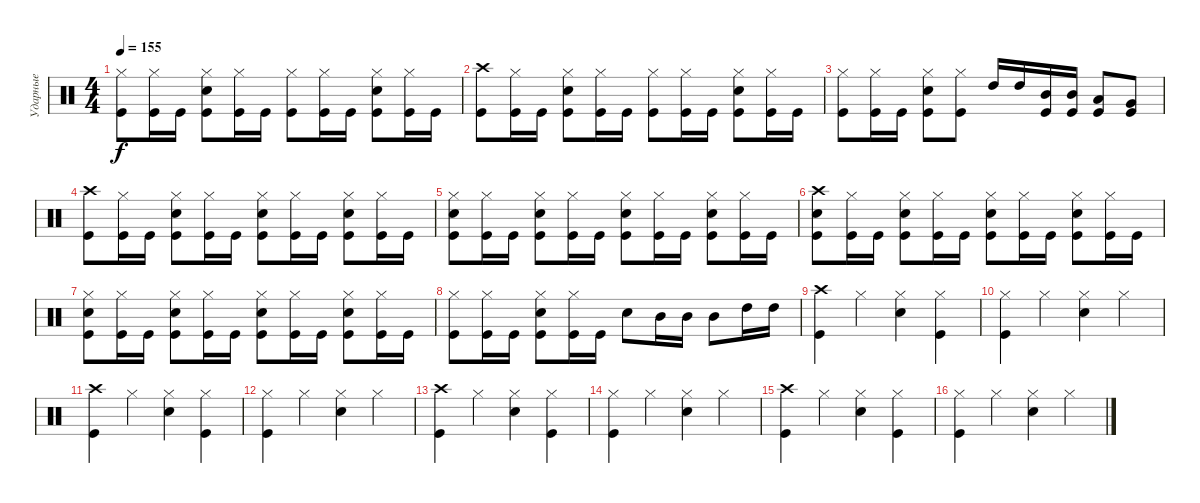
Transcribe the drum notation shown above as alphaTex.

\track ("Ударные" "Ударные") {instrument percussion}
\staff {score}
\articulation defaults
\ts (4 4)
\tempo 155
\clef neutral
\ks c
("Hi-Hat (closed)" "Kick (hit)").8{dy f} ("Hi-Hat (closed)" "Kick (hit)").16 "Kick (hit)".16 ("Hi-Hat (closed)" "Electric Snare (hit)" "Kick (hit)").8 ("Hi-Hat (closed)" "Kick (hit)").16 "Kick (hit)".16 ("Hi-Hat (closed)" "Kick (hit)").8 ("Hi-Hat (closed)" "Kick (hit)").16 "Kick (hit)".16 ("Hi-Hat (closed)" "Electric Snare (hit)" "Kick (hit)").8 ("Hi-Hat (closed)" "Kick (hit)").16 "Kick (hit)".16 |
("Crash high (hit)" "Kick (hit)").8 ("Hi-Hat (closed)" "Kick (hit)").16 "Kick (hit)".16 ("Hi-Hat (closed)" "Electric Snare (hit)" "Kick (hit)").8 ("Hi-Hat (closed)" "Kick (hit)").16 "Kick (hit)".16 ("Hi-Hat (closed)" "Kick (hit)").8 ("Hi-Hat (closed)" "Kick (hit)").16 "Kick (hit)".16 ("Hi-Hat (closed)" "Electric Snare (hit)" "Kick (hit)").8 ("Hi-Hat (closed)" "Kick (hit)").16 "Kick (hit)".16 |
("Hi-Hat (closed)" "Kick (hit)").8 ("Hi-Hat (closed)" "Kick (hit)").16 "Kick (hit)".16 ("Hi-Hat (closed)" "Electric Snare (hit)" "Kick (hit)").8 ("Hi-Hat (closed)" "Kick (hit)").8 "High Tom (hit)".16 "High Tom (hit)".16 ("Mid Tom (hit)" "Kick (hit)").16 ("Mid Tom (hit)" "Kick (hit)").16 ("Low Tom (hit)" "Kick (hit)").8 ("Very Low Tom (hit)" "Kick (hit)").8 |
("Crash high (hit)" "Kick (hit)").8 ("Hi-Hat (closed)" "Kick (hit)").16 "Kick (hit)".16 ("Hi-Hat (closed)" "Electric Snare (hit)" "Kick (hit)").8 ("Hi-Hat (closed)" "Kick (hit)").16 "Kick (hit)".16 ("Hi-Hat (closed)" "Electric Snare (hit)" "Kick (hit)").8 ("Hi-Hat (closed)" "Kick (hit)").16 "Kick (hit)".16 ("Hi-Hat (closed)" "Electric Snare (hit)" "Kick (hit)").8 ("Hi-Hat (closed)" "Kick (hit)").16 "Kick (hit)".16 |
("Hi-Hat (closed)" "Electric Snare (hit)" "Kick (hit)").8 ("Hi-Hat (closed)" "Kick (hit)").16 "Kick (hit)".16 ("Hi-Hat (closed)" "Electric Snare (hit)" "Kick (hit)").8 ("Hi-Hat (closed)" "Kick (hit)").16 "Kick (hit)".16 ("Hi-Hat (closed)" "Electric Snare (hit)" "Kick (hit)").8 ("Hi-Hat (closed)" "Kick (hit)").16 "Kick (hit)".16 ("Hi-Hat (closed)" "Electric Snare (hit)" "Kick (hit)").8 ("Hi-Hat (closed)" "Kick (hit)").16 "Kick (hit)".16 |
("Crash high (hit)" "Electric Snare (hit)" "Kick (hit)").8 ("Hi-Hat (closed)" "Kick (hit)").16 "Kick (hit)".16 ("Hi-Hat (closed)" "Electric Snare (hit)" "Kick (hit)").8 ("Hi-Hat (closed)" "Kick (hit)").16 "Kick (hit)".16 ("Hi-Hat (closed)" "Electric Snare (hit)" "Kick (hit)").8 ("Hi-Hat (closed)" "Kick (hit)").16 "Kick (hit)".16 ("Hi-Hat (closed)" "Electric Snare (hit)" "Kick (hit)").8 ("Hi-Hat (closed)" "Kick (hit)").16 "Kick (hit)".16 |
("Hi-Hat (closed)" "Electric Snare (hit)" "Kick (hit)").8 ("Hi-Hat (closed)" "Kick (hit)").16 "Kick (hit)".16 ("Hi-Hat (closed)" "Electric Snare (hit)" "Kick (hit)").8 ("Hi-Hat (closed)" "Kick (hit)").16 "Kick (hit)".16 ("Hi-Hat (closed)" "Electric Snare (hit)" "Kick (hit)").8 ("Hi-Hat (closed)" "Kick (hit)").16 "Kick (hit)".16 ("Hi-Hat (closed)" "Electric Snare (hit)" "Kick (hit)").8 ("Hi-Hat (closed)" "Kick (hit)").16 "Kick (hit)".16 |
("Hi-Hat (closed)" "Kick (hit)").8 ("Hi-Hat (closed)" "Kick (hit)").16 "Kick (hit)".16 ("Hi-Hat (closed)" "Electric Snare (hit)" "Kick (hit)").8 ("Hi-Hat (closed)" "Kick (hit)").16 "Kick (hit)".16 "Electric Snare (hit)".8 "Mid Tom (hit)".16 "Mid Tom (hit)".16 "Mid Tom (hit)".8 "High Tom (hit)".16 "High Tom (hit)".16 |
("Crash high (hit)" "Kick (hit)").4 "Hi-Hat (closed)".4 ("Hi-Hat (closed)" "Electric Snare (hit)").4 ("Hi-Hat (closed)" "Kick (hit)").4 |
("Hi-Hat (closed)" "Kick (hit)").4 "Hi-Hat (closed)".4 ("Hi-Hat (closed)" "Electric Snare (hit)").4 "Hi-Hat (closed)".4 |
("Crash high (hit)" "Kick (hit)").4 "Hi-Hat (closed)".4 ("Hi-Hat (closed)" "Electric Snare (hit)").4 ("Hi-Hat (closed)" "Kick (hit)").4 |
("Hi-Hat (closed)" "Kick (hit)").4 "Hi-Hat (closed)".4 ("Hi-Hat (closed)" "Electric Snare (hit)").4 "Hi-Hat (closed)".4 |
("Crash high (hit)" "Kick (hit)").4 "Hi-Hat (closed)".4 ("Hi-Hat (closed)" "Electric Snare (hit)").4 ("Hi-Hat (closed)" "Kick (hit)").4 |
("Hi-Hat (closed)" "Kick (hit)").4 "Hi-Hat (closed)".4 ("Hi-Hat (closed)" "Electric Snare (hit)").4 "Hi-Hat (closed)".4 |
("Crash high (hit)" "Kick (hit)").4 "Hi-Hat (closed)".4 ("Hi-Hat (closed)" "Electric Snare (hit)").4 ("Hi-Hat (closed)" "Kick (hit)").4 |
("Hi-Hat (closed)" "Kick (hit)").4 "Hi-Hat (closed)".4 ("Hi-Hat (closed)" "Electric Snare (hit)").4 "Hi-Hat (closed)".4
